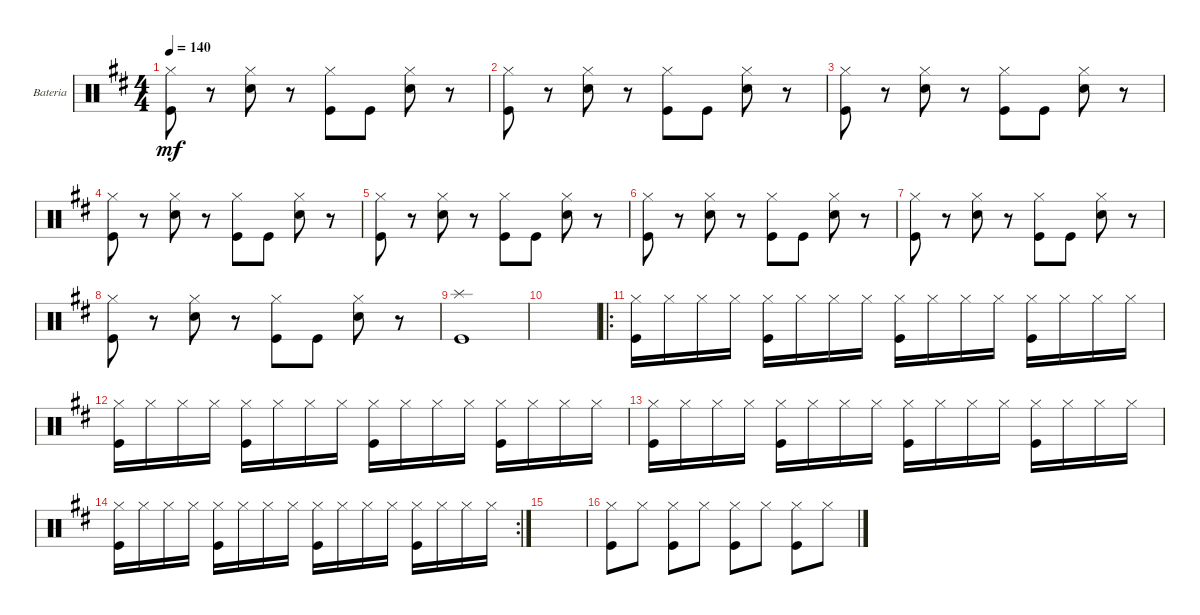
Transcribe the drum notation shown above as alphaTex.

\defaultSystemsLayout 4
\bracketExtendMode groupsimilarinstruments
\firstSystemTrackNameOrientation horizontal
\otherSystemsTrackNameOrientation horizontal
\track ("Bateria" "Bateria") {instrument percussion}
\staff {score}
\articulation defaults
\ts (4 4)
\tempo 140
\clef neutral
\scale
0.517241
\ks d
("Hi-Hat (closed)" "Kick (hit)").8{dy mf} r.8 ("Hi-Hat (closed)" "Snare (hit) 2").8 r.8 ("Hi-Hat (closed)" "Kick (hit)").8 "Kick (hit)".8 ("Hi-Hat (closed)" "Snare (hit) 2").8 r.8 |
\scale
0.241379 ("Hi-Hat (closed)" "Kick (hit)").8 r.8 ("Hi-Hat (closed)" "Snare (hit) 2").8 r.8 ("Hi-Hat (closed)" "Kick (hit)").8 "Kick (hit)".8 ("Hi-Hat (closed)" "Snare (hit) 2").8 r.8 |
\scale
0.241379 ("Hi-Hat (closed)" "Kick (hit)").8 r.8 ("Hi-Hat (closed)" "Snare (hit) 2").8 r.8 ("Hi-Hat (closed)" "Kick (hit)").8 "Kick (hit)".8 ("Hi-Hat (closed)" "Snare (hit) 2").8 r.8 |
\scale
0.333333 ("Hi-Hat (closed)" "Kick (hit)").8 r.8 ("Hi-Hat (closed)" "Snare (hit) 2").8 r.8 ("Hi-Hat (closed)" "Kick (hit)").8 "Kick (hit)".8 ("Hi-Hat (closed)" "Snare (hit) 2").8 r.8 |
\scale
0.333333 ("Hi-Hat (closed)" "Kick (hit)").8 r.8 ("Hi-Hat (closed)" "Snare (hit) 2").8 r.8 ("Hi-Hat (closed)" "Kick (hit)").8 "Kick (hit)".8 ("Hi-Hat (closed)" "Snare (hit) 2").8 r.8 |
\scale
0.333333 ("Hi-Hat (closed)" "Kick (hit)").8 r.8 ("Hi-Hat (closed)" "Snare (hit) 2").8 r.8 ("Hi-Hat (closed)" "Kick (hit)").8 "Kick (hit)".8 ("Hi-Hat (closed)" "Snare (hit) 2").8 r.8 |
("Hi-Hat (closed)" "Kick (hit)").8 r.8 ("Hi-Hat (closed)" "Snare (hit) 2").8 r.8 ("Hi-Hat (closed)" "Kick (hit)").8 "Kick (hit)".8 ("Hi-Hat (closed)" "Snare (hit) 2").8 r.8 |
("Hi-Hat (closed)" "Kick (hit)").8 r.8 ("Hi-Hat (closed)" "Snare (hit) 2").8 r.8 ("Hi-Hat (closed)" "Kick (hit)").8 "Kick (hit)".8 ("Hi-Hat (closed)" "Snare (hit) 2").8 r.8 |
("Kick (hit)" "Splash (hit)").1 |
|
\ro
("Hi-Hat (closed)" "Kick (hit)").16 "Hi-Hat (closed)".16 "Hi-Hat (closed)".16 "Hi-Hat (closed)".16 ("Hi-Hat (closed)" "Kick (hit)").16 "Hi-Hat (closed)".16 "Hi-Hat (closed)".16 "Hi-Hat (closed)".16 ("Hi-Hat (closed)" "Kick (hit)").16 "Hi-Hat (closed)".16 "Hi-Hat (closed)".16 "Hi-Hat (closed)".16 ("Hi-Hat (closed)" "Kick (hit)").16 "Hi-Hat (closed)".16 "Hi-Hat (closed)".16 "Hi-Hat (closed)".16 |
("Hi-Hat (closed)" "Kick (hit)").16 "Hi-Hat (closed)".16 "Hi-Hat (closed)".16 "Hi-Hat (closed)".16 ("Hi-Hat (closed)" "Kick (hit)").16 "Hi-Hat (closed)".16 "Hi-Hat (closed)".16 "Hi-Hat (closed)".16 ("Hi-Hat (closed)" "Kick (hit)").16 "Hi-Hat (closed)".16 "Hi-Hat (closed)".16 "Hi-Hat (closed)".16 ("Hi-Hat (closed)" "Kick (hit)").16 "Hi-Hat (closed)".16 "Hi-Hat (closed)".16 "Hi-Hat (closed)".16 |
("Hi-Hat (closed)" "Kick (hit)").16 "Hi-Hat (closed)".16 "Hi-Hat (closed)".16 "Hi-Hat (closed)".16 ("Hi-Hat (closed)" "Kick (hit)").16 "Hi-Hat (closed)".16 "Hi-Hat (closed)".16 "Hi-Hat (closed)".16 ("Hi-Hat (closed)" "Kick (hit)").16 "Hi-Hat (closed)".16 "Hi-Hat (closed)".16 "Hi-Hat (closed)".16 ("Hi-Hat (closed)" "Kick (hit)").16 "Hi-Hat (closed)".16 "Hi-Hat (closed)".16 "Hi-Hat (closed)".16 |
\rc 2
("Hi-Hat (closed)" "Kick (hit)").16 "Hi-Hat (closed)".16 "Hi-Hat (closed)".16 "Hi-Hat (closed)".16 ("Hi-Hat (closed)" "Kick (hit)").16 "Hi-Hat (closed)".16 "Hi-Hat (closed)".16 "Hi-Hat (closed)".16 ("Hi-Hat (closed)" "Kick (hit)").16 "Hi-Hat (closed)".16 "Hi-Hat (closed)".16 "Hi-Hat (closed)".16 ("Hi-Hat (closed)" "Kick (hit)").16 "Hi-Hat (closed)".16 "Hi-Hat (closed)".16 "Hi-Hat (closed)".16 |
|
("Kick (hit)" "Hi-Hat (closed)").8 "Hi-Hat (closed)".8 ("Hi-Hat (closed)" "Kick (hit)").8 "Hi-Hat (closed)".8 ("Kick (hit)" "Hi-Hat (closed)").8 "Hi-Hat (closed)".8 ("Hi-Hat (closed)" "Kick (hit)").8 "Hi-Hat (closed)".8
